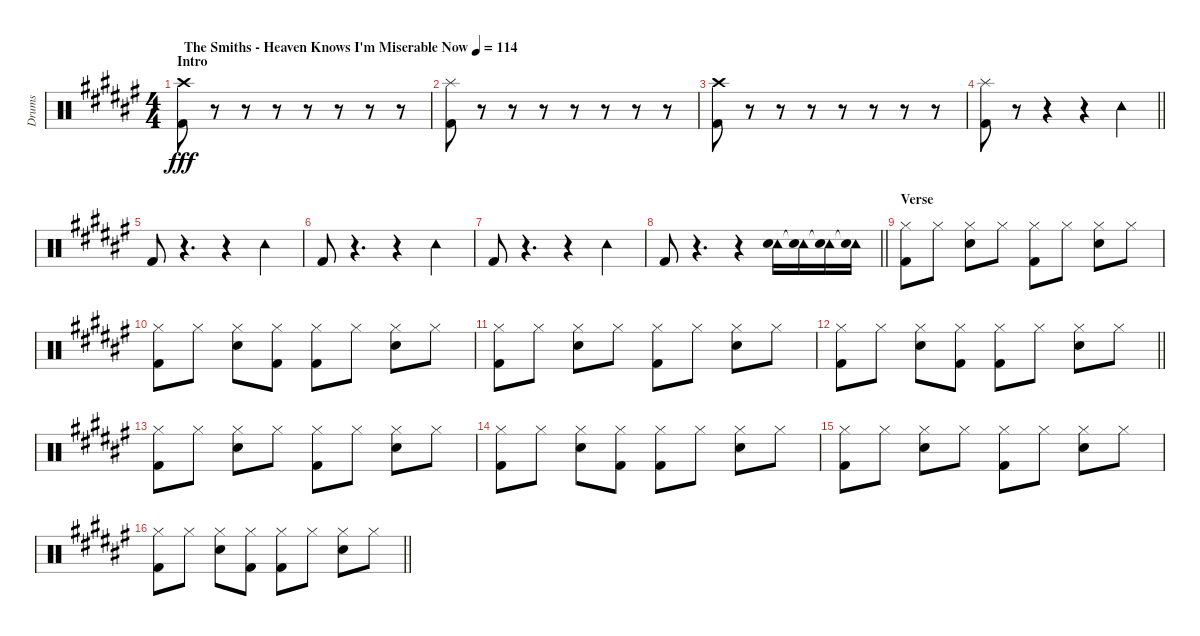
\track ("Drums" "Drums") {instrument percussion}
\staff {score}
\articulation defaults
\ts (4 4)
\section ("" "Intro")
\tempo (114 "The Smiths - Heaven Knows I'm Miserable Now")
\clef neutral
\ks f#
("Crash high (hit)" "Kick (hit) 2").8{dy fff} r.8 r.8 r.8 r.8 r.8 r.8 r.8 |
("Splash (hit)" "Kick (hit) 2").8 r.8 r.8 r.8 r.8 r.8 r.8 r.8 |
("Crash high (hit)" "Kick (hit) 2").8 r.8 r.8 r.8 r.8 r.8 r.8 r.8 |
\barLineRight lightlight
("Splash (hit)" "Kick (hit) 2").8 r.8 r.4 r.4 "Tambourine (hit)".4 |
"Kick (hit) 2".8 r.4{d} r.4 "Tambourine (hit)".4 |
"Kick (hit) 2".8 r.4{d} r.4 "Tambourine (hit)".4 |
"Kick (hit) 2".8 r.4{d} r.4 "Tambourine (hit)".4 |
\barLineRight lightlight "Kick (hit) 2".8
r.4{d} r.4 ("Tambourine (hit)" "Electric Snare (hit)").16 ("Tambourine (hit)"{t} "Electric Snare (hit)").16 ("Tambourine (hit)"{t} "Electric Snare (hit)").16 ("Tambourine (hit)"{t} "Electric Snare (hit)").16 |
\section ("" "Verse")
("Hi-Hat (closed)" "Kick (hit) 2").8 "Hi-Hat (closed)".8 ("Hi-Hat (closed)" "Electric Snare (hit)").8 "Hi-Hat (closed)".8 ("Hi-Hat (closed)" "Kick (hit) 2").8 "Hi-Hat (closed)".8 ("Hi-Hat (closed)" "Electric Snare (hit)").8 "Hi-Hat (closed)".8 |
("Hi-Hat (closed)" "Kick (hit) 2").8 "Hi-Hat (closed)".8 ("Hi-Hat (closed)" "Electric Snare (hit)").8 ("Hi-Hat (closed)" "Kick (hit) 2").8 ("Hi-Hat (closed)" "Kick (hit) 2").8 "Hi-Hat (closed)".8 ("Hi-Hat (closed)" "Electric Snare (hit)").8 "Hi-Hat (closed)".8 |
("Hi-Hat (closed)" "Kick (hit) 2").8 "Hi-Hat (closed)".8 ("Hi-Hat (closed)" "Electric Snare (hit)").8 "Hi-Hat (closed)".8 ("Hi-Hat (closed)" "Kick (hit) 2").8 "Hi-Hat (closed)".8 ("Hi-Hat (closed)" "Electric Snare (hit)").8 "Hi-Hat (closed)".8 |
\barLineRight lightlight
("Hi-Hat (closed)" "Kick (hit) 2").8 "Hi-Hat (closed)".8 ("Hi-Hat (closed)" "Electric Snare (hit)").8 ("Hi-Hat (closed)" "Kick (hit) 2").8 ("Hi-Hat (closed)" "Kick (hit) 2").8 "Hi-Hat (closed)".8 ("Hi-Hat (closed)" "Electric Snare (hit)").8 "Hi-Hat (closed)".8 |
("Hi-Hat (closed)" "Kick (hit) 2").8 "Hi-Hat (closed)".8 ("Hi-Hat (closed)" "Electric Snare (hit)").8 "Hi-Hat (closed)".8 ("Hi-Hat (closed)" "Kick (hit) 2").8 "Hi-Hat (closed)".8 ("Hi-Hat (closed)" "Electric Snare (hit)").8 "Hi-Hat (closed)".8 |
("Hi-Hat (closed)" "Kick (hit) 2").8 "Hi-Hat (closed)".8 ("Hi-Hat (closed)" "Electric Snare (hit)").8 ("Hi-Hat (closed)" "Kick (hit) 2").8 ("Hi-Hat (closed)" "Kick (hit) 2").8 "Hi-Hat (closed)".8 ("Hi-Hat (closed)" "Electric Snare (hit)").8 "Hi-Hat (closed)".8 |
("Hi-Hat (closed)" "Kick (hit) 2").8 "Hi-Hat (closed)".8 ("Hi-Hat (closed)" "Electric Snare (hit)").8 "Hi-Hat (closed)".8 ("Hi-Hat (closed)" "Kick (hit) 2").8 "Hi-Hat (closed)".8 ("Hi-Hat (closed)" "Electric Snare (hit)").8 "Hi-Hat (closed)".8 |
\barLineRight lightlight
("Hi-Hat (closed)" "Kick (hit) 2").8 "Hi-Hat (closed)".8 ("Hi-Hat (closed)" "Electric Snare (hit)").8 ("Hi-Hat (closed)" "Kick (hit) 2").8 ("Hi-Hat (closed)" "Kick (hit) 2").8 "Hi-Hat (closed)".8 ("Hi-Hat (closed)" "Electric Snare (hit)").8 "Hi-Hat (closed)".8
